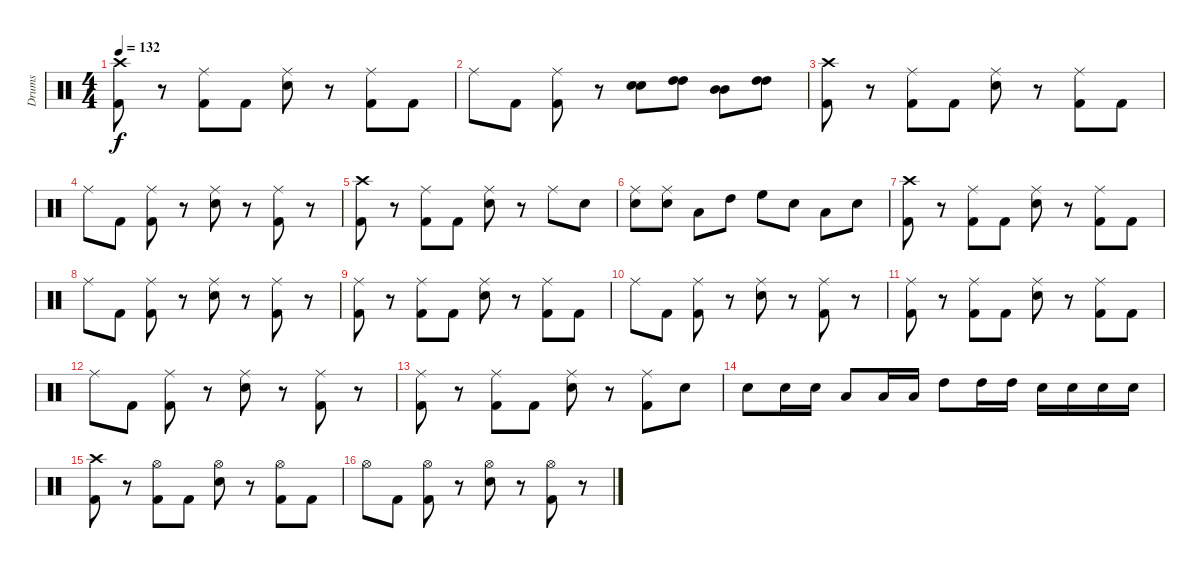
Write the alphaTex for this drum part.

\track ("Drums" "Drums") {instrument percussion}
\staff {score}
\articulation defaults
\ts (4 4)
\tempo 132
\clef neutral
\ks c
("Kick (hit) 2" "Crash high (hit)").8{dy f} r.8 ("Kick (hit) 2" "Ride (middle)").8 "Kick (hit) 2".8 ("Snare (hit) 2" "Ride (middle)").8 r.8 ("Kick (hit) 2" "Ride (middle)").8 "Kick (hit) 2".8 |
"Ride (middle)".8 "Kick (hit) 2".8 ("Kick (hit) 2" "Ride (middle)").8 r.8 ("Snare (hit) 2" "Snare (hit) 2").8 ("High Tom (hit)" "High Tom (hit)").8 ("Mid Tom (hit)" "Mid Tom (hit)").8 ("High Tom (hit)" "High Tom (hit)").8 |
("Kick (hit) 2" "Crash high (hit)").8 r.8 ("Kick (hit) 2" "Ride (middle)").8 "Kick (hit) 2".8 ("Snare (hit) 2" "Ride (middle)").8 r.8 ("Kick (hit) 2" "Ride (middle)").8 "Kick (hit) 2".8 |
"Ride (middle)".8 "Kick (hit) 2".8 ("Kick (hit) 2" "Ride (middle)").8 r.8 ("Snare (hit) 2" "Ride (middle)").8 r.8 ("Kick (hit) 2" "Ride (middle)").8 r.8 |
("Kick (hit) 2" "Crash high (hit)").8 r.8 ("Kick (hit) 2" "Ride (middle)").8 "Kick (hit) 2".8 ("Snare (hit) 2" "Ride (middle)").8 r.8 "Ride (middle)".8 "Snare (hit) 2".8 |
("Snare (hit) 2" "Ride (middle)").8 ("Snare (hit) 2" "Ride (middle)").8 "Low Tom (hit)".8 "High Tom (hit)".8 "High Floor Tom (hit)".8 "Snare (hit) 2".8 "Low Tom (hit)".8 "Snare (hit) 2".8 |
("Kick (hit) 2" "Crash high (hit)").8 r.8 ("Kick (hit) 2" "Ride (middle)").8 "Kick (hit) 2".8 ("Snare (hit) 2" "Ride (middle)").8 r.8 ("Kick (hit) 2" "Ride (middle)").8 "Kick (hit) 2".8 |
"Ride (middle)".8 "Kick (hit) 2".8 ("Kick (hit) 2" "Ride (middle)").8 r.8 ("Snare (hit) 2" "Ride (middle)").8 r.8 ("Kick (hit) 2" "Ride (middle)").8 r.8 |
("Kick (hit) 2" "Ride (middle)").8 r.8 ("Kick (hit) 2" "Ride (middle)").8 "Kick (hit) 2".8 ("Snare (hit) 2" "Ride (middle)").8 r.8 ("Kick (hit) 2" "Ride (middle)").8 "Kick (hit) 2".8 |
"Ride (middle)".8 "Kick (hit) 2".8 ("Kick (hit) 2" "Ride (middle)").8 r.8 ("Snare (hit) 2" "Ride (middle)").8 r.8 ("Kick (hit) 2" "Ride (middle)").8 r.8 |
("Kick (hit) 2" "Ride (middle)").8 r.8 ("Kick (hit) 2" "Ride (middle)").8 "Kick (hit) 2".8 ("Snare (hit) 2" "Ride (middle)").8 r.8 ("Kick (hit) 2" "Ride (middle)").8 "Kick (hit) 2".8 |
"Ride (middle)".8 "Kick (hit) 2".8 ("Kick (hit) 2" "Ride (middle)").8 r.8 ("Snare (hit) 2" "Ride (middle)").8 r.8 ("Kick (hit) 2" "Ride (middle)").8 r.8 |
("Kick (hit) 2" "Ride (middle)").8 r.8 ("Kick (hit) 2" "Ride (middle)").8 "Kick (hit) 2".8 ("Snare (hit) 2" "Ride (middle)").8 r.8 ("Kick (hit) 2" "Ride (middle)").8 "Snare (hit) 2".8 |
"Snare (hit) 2".8 "Snare (hit) 2".16 "Snare (hit) 2".16 "Low Tom (hit)".8 "Low Tom (hit)".16 "Low Tom (hit)".16 "High Tom (hit)".8 "High Tom (hit)".16 "High Tom (hit)".16 "Snare (hit) 2".16 "Snare (hit) 2".16 "Snare (hit) 2".16 "Snare (hit) 2".16 |
("Kick (hit) 2" "Crash high (hit)").8 r.8 ("Kick (hit) 2" "Hi-Hat (open)").8 "Kick (hit) 2".8 ("Snare (hit) 2" "Hi-Hat (open)").8 r.8 ("Kick (hit) 2" "Hi-Hat (open)").8 "Kick (hit) 2".8 |
"Hi-Hat (open)".8 "Kick (hit) 2".8 ("Kick (hit) 2" "Hi-Hat (open)").8 r.8 ("Snare (hit) 2" "Hi-Hat (open)").8 r.8 ("Kick (hit) 2" "Hi-Hat (open)").8 r.8
